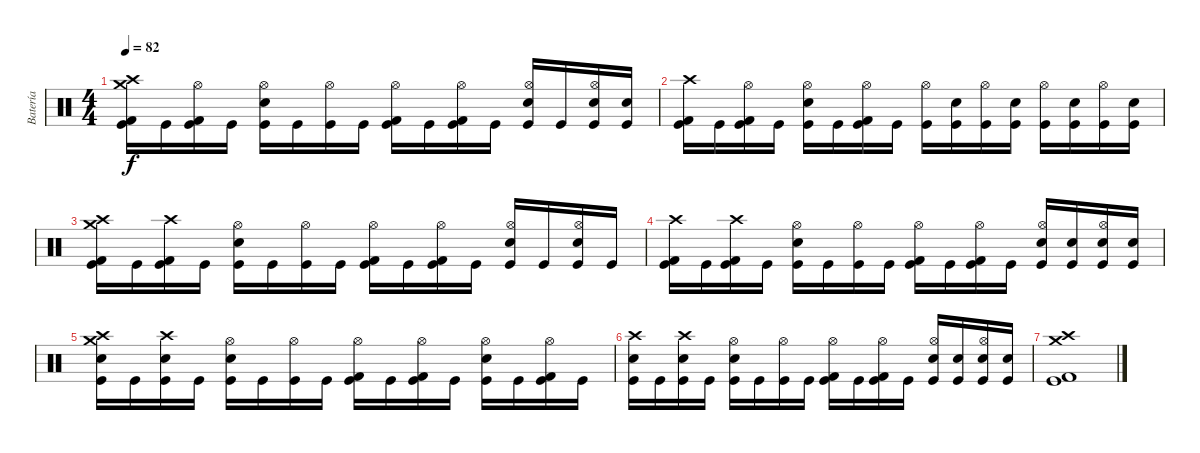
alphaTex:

\track ("Batería" "Batería") {instrument percussion}
\staff {score}
\articulation defaults
\ts (4 4)
\tempo 82
\clef neutral
\ks c
("Crash high (hit)" "Crash medium (hit)" "Kick (hit) 2" "Kick (hit)").16{dy f} "Kick (hit)".16 ("Hi-Hat (open)" "Kick (hit) 2" "Kick (hit)").16 "Kick (hit)".16 ("Hi-Hat (open)" "Snare (hit) 2" "Kick (hit)").16 "Kick (hit)".16 ("Hi-Hat (open)" "Kick (hit)").16 "Kick (hit)".16 ("Hi-Hat (open)" "Kick (hit) 2" "Kick (hit)").16 "Kick (hit)".16 ("Hi-Hat (open)" "Kick (hit) 2" "Kick (hit)").16 "Kick (hit)".16 ("Hi-Hat (open)" "Snare (hit) 2" "Kick (hit)").16 "Kick (hit)".16 ("Hi-Hat (open)" "Snare (hit) 2" "Kick (hit)").16 ("Snare (hit) 2" "Kick (hit)").16 |
("Crash high (hit)" "Kick (hit) 2" "Kick (hit)").16 "Kick (hit)".16 ("Hi-Hat (open)" "Kick (hit) 2" "Kick (hit)").16 "Kick (hit)".16 ("Hi-Hat (open)" "Snare (hit) 2" "Kick (hit)").16 "Kick (hit)".16 ("Hi-Hat (open)" "Kick (hit) 2" "Kick (hit)").16 "Kick (hit)".16 ("Hi-Hat (open)" "Kick (hit)").16 ("Snare (hit) 2" "Kick (hit)").16 ("Hi-Hat (open)" "Kick (hit)").16 ("Snare (hit) 2" "Kick (hit)").16 ("Hi-Hat (open)" "Kick (hit)").16 ("Snare (hit) 2" "Kick (hit)").16 ("Hi-Hat (open)" "Kick (hit)").16 ("Snare (hit) 2" "Kick (hit)").16 |
("Crash high (hit)" "Crash medium (hit)" "Kick (hit) 2" "Kick (hit)").16 "Kick (hit)".16 ("Crash high (hit)" "Kick (hit) 2" "Kick (hit)").16 "Kick (hit)".16 ("Hi-Hat (open)" "Snare (hit) 2" "Kick (hit)").16 "Kick (hit)".16 ("Hi-Hat (open)" "Kick (hit)").16 "Kick (hit)".16 ("Hi-Hat (open)" "Kick (hit) 2" "Kick (hit)").16 "Kick (hit)".16 ("Hi-Hat (open)" "Kick (hit) 2" "Kick (hit)").16 "Kick (hit)".16 ("Hi-Hat (open)" "Snare (hit) 2" "Kick (hit)").16 "Kick (hit)".16 ("Hi-Hat (open)" "Snare (hit) 2" "Kick (hit)").16 "Kick (hit)".16 |
("Crash high (hit)" "Kick (hit) 2" "Kick (hit)").16 "Kick (hit)".16 ("Crash high (hit)" "Kick (hit) 2" "Kick (hit)").16 "Kick (hit)".16 ("Hi-Hat (open)" "Snare (hit) 2" "Kick (hit)").16 "Kick (hit)".16 ("Hi-Hat (open)" "Kick (hit)").16 "Kick (hit)".16 ("Hi-Hat (open)" "Kick (hit) 2" "Kick (hit)").16 "Kick (hit)".16 ("Hi-Hat (open)" "Kick (hit) 2" "Kick (hit)").16 "Kick (hit)".16 ("Hi-Hat (open)" "Snare (hit) 2" "Kick (hit)").16 ("Snare (hit) 2" "Kick (hit)").16 ("Hi-Hat (open)" "Snare (hit) 2" "Kick (hit)").16 ("Snare (hit) 2" "Kick (hit)").16 |
("Crash high (hit)" "Crash medium (hit)" "Snare (hit) 2" "Kick (hit)").16 "Kick (hit)".16 ("Crash high (hit)" "Snare (hit) 2" "Kick (hit)").16 "Kick (hit)".16 ("Hi-Hat (open)" "Snare (hit) 2" "Kick (hit)").16 "Kick (hit)".16 ("Hi-Hat (open)" "Kick (hit)").16 "Kick (hit)".16 ("Hi-Hat (open)" "Kick (hit) 2" "Kick (hit)").16 "Kick (hit)".16 ("Hi-Hat (open)" "Kick (hit) 2" "Kick (hit)").16 "Kick (hit)".16 ("Hi-Hat (open)" "Snare (hit) 2" "Kick (hit)").16 "Kick (hit)".16 ("Hi-Hat (open)" "Kick (hit) 2" "Kick (hit)").16 "Kick (hit)".16 |
("Crash high (hit)" "Snare (hit) 2" "Kick (hit)").16 "Kick (hit)".16 ("Crash high (hit)" "Snare (hit) 2" "Kick (hit)").16 "Kick (hit)".16 ("Hi-Hat (open)" "Snare (hit) 2" "Kick (hit)").16 "Kick (hit)".16 ("Hi-Hat (open)" "Kick (hit)").16 "Kick (hit)".16 ("Hi-Hat (open)" "Kick (hit) 2" "Kick (hit)").16 "Kick (hit)".16 ("Hi-Hat (open)" "Kick (hit) 2" "Kick (hit)").16 "Kick (hit)".16 ("Hi-Hat (open)" "Snare (hit) 2" "Kick (hit)").16 ("Snare (hit) 2" "Kick (hit)").16 ("Hi-Hat (open)" "Snare (hit) 2" "Kick (hit)").16 ("Snare (hit) 2" "Kick (hit)").16 |
("Crash high (hit)" "Crash medium (hit)" "Kick (hit) 2" "Kick (hit)").1
